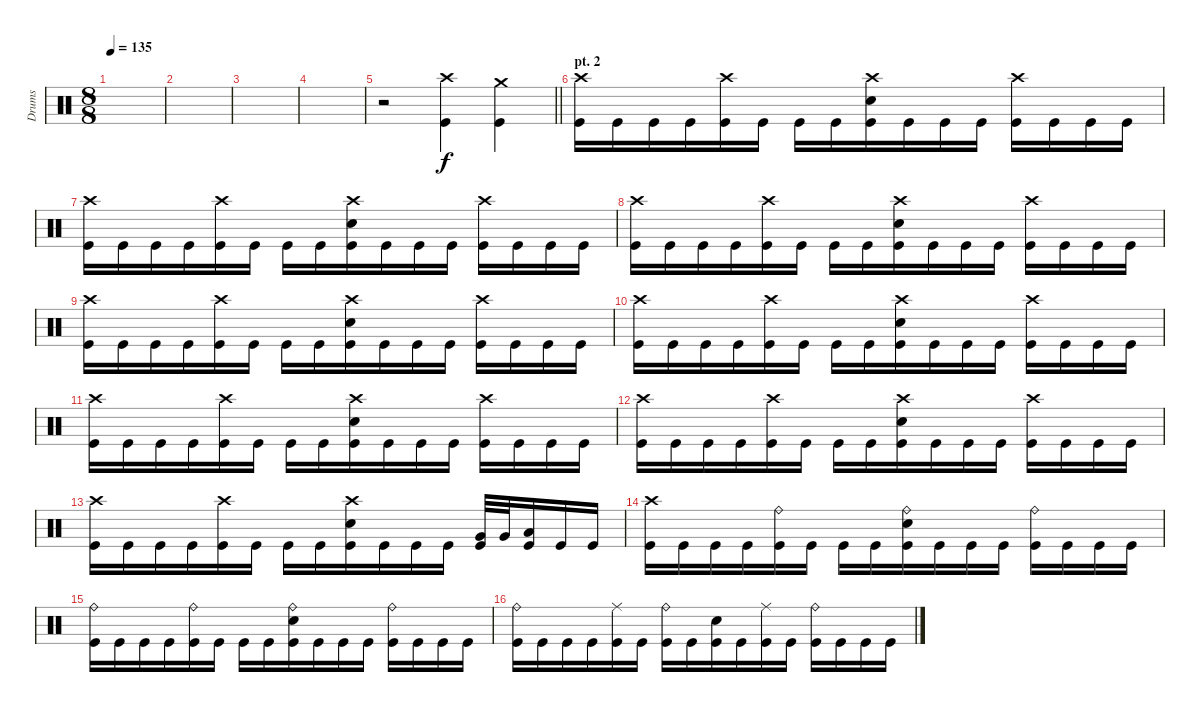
\track ("Drums" "Drums") {instrument percussion}
\staff
\articulation defaults
\ts (8 8)
\tempo 135
\clef neutral
\ks c
|
|
|
|
\barLineRight lightlight
r.2 ("Crash high (hit)" "Kick (hit)").4 ("Crash medium (hit)" "Kick (hit)").4 |
\section ("" "pt. 2")
("Crash high (hit)" "Kick (hit)").16 "Kick (hit)".16 "Kick (hit)".16 "Kick (hit)".16 ("Crash high (hit)" "Kick (hit)").16 "Kick (hit)".16 "Kick (hit)".16 "Kick (hit)".16 ("Crash high (hit)" "Snare (hit) 2" "Kick (hit)").16 "Kick (hit)".16 "Kick (hit)".16 "Kick (hit)".16 ("Crash high (hit)" "Kick (hit)").16 "Kick (hit)".16 "Kick (hit)".16 "Kick (hit)".16 |
("Crash high (hit)" "Kick (hit)").16 "Kick (hit)".16 "Kick (hit)".16 "Kick (hit)".16 ("Crash high (hit)" "Kick (hit)").16 "Kick (hit)".16 "Kick (hit)".16 "Kick (hit)".16 ("Crash high (hit)" "Snare (hit) 2" "Kick (hit)").16 "Kick (hit)".16 "Kick (hit)".16 "Kick (hit)".16 ("Crash high (hit)" "Kick (hit)").16 "Kick (hit)".16 "Kick (hit)".16 "Kick (hit)".16 |
("Crash high (hit)" "Kick (hit)").16 "Kick (hit)".16 "Kick (hit)".16 "Kick (hit)".16 ("Crash high (hit)" "Kick (hit)").16 "Kick (hit)".16 "Kick (hit)".16 "Kick (hit)".16 ("Crash high (hit)" "Snare (hit) 2" "Kick (hit)").16 "Kick (hit)".16 "Kick (hit)".16 "Kick (hit)".16 ("Crash high (hit)" "Kick (hit)").16 "Kick (hit)".16 "Kick (hit)".16 "Kick (hit)".16 |
("Crash high (hit)" "Kick (hit)").16 "Kick (hit)".16 "Kick (hit)".16 "Kick (hit)".16 ("Crash high (hit)" "Kick (hit)").16 "Kick (hit)".16 "Kick (hit)".16 "Kick (hit)".16 ("Crash high (hit)" "Snare (hit) 2" "Kick (hit)").16 "Kick (hit)".16 "Kick (hit)".16 "Kick (hit)".16 ("Crash high (hit)" "Kick (hit)").16 "Kick (hit)".16 "Kick (hit)".16 "Kick (hit)".16 |
("Crash high (hit)" "Kick (hit)").16 "Kick (hit)".16 "Kick (hit)".16 "Kick (hit)".16 ("Crash high (hit)" "Kick (hit)").16 "Kick (hit)".16 "Kick (hit)".16 "Kick (hit)".16 ("Crash high (hit)" "Snare (hit) 2" "Kick (hit)").16 "Kick (hit)".16 "Kick (hit)".16 "Kick (hit)".16 ("Crash high (hit)" "Kick (hit)").16 "Kick (hit)".16 "Kick (hit)".16 "Kick (hit)".16 |
("Crash high (hit)" "Kick (hit)").16 "Kick (hit)".16 "Kick (hit)".16 "Kick (hit)".16 ("Crash high (hit)" "Kick (hit)").16 "Kick (hit)".16 "Kick (hit)".16 "Kick (hit)".16 ("Crash high (hit)" "Snare (hit) 2" "Kick (hit)").16 "Kick (hit)".16 "Kick (hit)".16 "Kick (hit)".16 ("Crash high (hit)" "Kick (hit)").16 "Kick (hit)".16 "Kick (hit)".16 "Kick (hit)".16 |
("Crash high (hit)" "Kick (hit)").16 "Kick (hit)".16 "Kick (hit)".16 "Kick (hit)".16 ("Crash high (hit)" "Kick (hit)").16 "Kick (hit)".16 "Kick (hit)".16 "Kick (hit)".16 ("Crash high (hit)" "Snare (hit) 2" "Kick (hit)").16 "Kick (hit)".16 "Kick (hit)".16 "Kick (hit)".16 ("Crash high (hit)" "Kick (hit)").16 "Kick (hit)".16 "Kick (hit)".16 "Kick (hit)".16 |
("Crash high (hit)" "Kick (hit)").16 "Kick (hit)".16 "Kick (hit)".16 "Kick (hit)".16 ("Crash high (hit)" "Kick (hit)").16 "Kick (hit)".16 "Kick (hit)".16 "Kick (hit)".16 ("Crash high (hit)" "Snare (hit) 2" "Kick (hit)").16 "Kick (hit)".16 "Kick (hit)".16 "Kick (hit)".16 ("Very Low Tom (hit)" "Kick (hit)").32 "Very Low Tom (hit)".32 ("Low Floor Tom (hit)" "Kick (hit)").16 "Kick (hit)".16 "Kick (hit)".16 |
("Crash high (hit)" "Kick (hit)").16 "Kick (hit)".16 "Kick (hit)".16 "Kick (hit)".16 ("Ride (bell)" "Kick (hit)").16 "Kick (hit)".16 "Kick (hit)".16 "Kick (hit)".16 ("Ride (bell)" "Snare (hit) 2" "Kick (hit)").16 "Kick (hit)".16 "Kick (hit)".16 "Kick (hit)".16 ("Ride (bell)" "Kick (hit)").16 "Kick (hit)".16 "Kick (hit)".16 "Kick (hit)".16 |
("Ride (bell)" "Kick (hit)").16 "Kick (hit)".16 "Kick (hit)".16 "Kick (hit)".16 ("Ride (bell)" "Kick (hit)").16 "Kick (hit)".16 "Kick (hit)".16 "Kick (hit)".16 ("Ride (bell)" "Snare (hit) 2" "Kick (hit)").16 "Kick (hit)".16 "Kick (hit)".16 "Kick (hit)".16 ("Ride (bell)" "Kick (hit)").16 "Kick (hit)".16 "Kick (hit)".16 "Kick (hit)".16 |
("Ride (bell)" "Kick (hit)").16 "Kick (hit)".16 "Kick (hit)".16 "Kick (hit)".16 ("Ride (middle)" "Kick (hit)").16 "Kick (hit)".16 ("Ride (bell)" "Kick (hit)").16 "Kick (hit)".16 ("Snare (hit) 2" "Kick (hit)").16 "Kick (hit)".16 ("Ride (middle)" "Kick (hit)").16 "Kick (hit)".16 ("Ride (bell)" "Kick (hit)").16 "Kick (hit)".16 "Kick (hit)".16 "Kick (hit)".16
